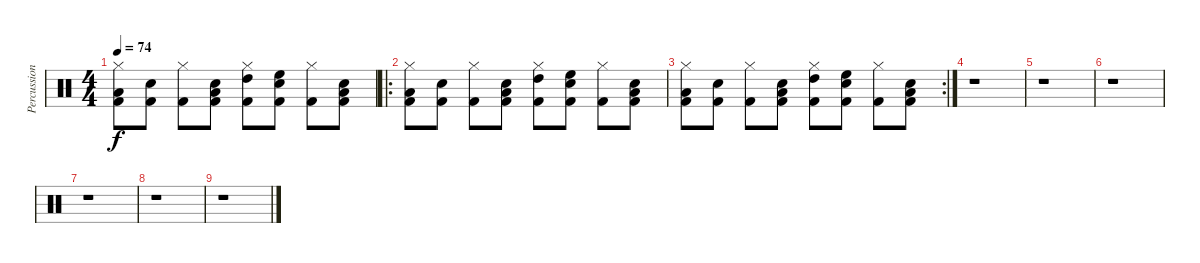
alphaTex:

\track ("Percussion" "Percussion") {instrument percussion}
\staff {score}
\articulation defaults
\ts (4 4)
\tempo 74
\clef neutral
\ks c
("Hi-Hat (closed)" "Low Tom (hit)" "Kick (hit) 2").8{dy f} ("Snare (hit) 2" "Kick (hit) 2").8 ("Hi-Hat (closed)" "Kick (hit) 2").8 ("Snare (hit) 2" "Low Tom (hit)" "Kick (hit) 2").8 ("Hi-Hat (closed)" "High Tom (hit)" "Kick (hit) 2").8 ("Snare (hit) 2" "High Floor Tom (hit)" "Kick (hit) 2").8 ("Hi-Hat (closed)" "Kick (hit) 2").8 ("Snare (hit) 2" "Low Tom (hit)" "Kick (hit) 2").8 |
\ro
("Hi-Hat (closed)" "Low Tom (hit)" "Kick (hit) 2").8 ("Snare (hit) 2" "Kick (hit) 2").8 ("Hi-Hat (closed)" "Kick (hit) 2").8 ("Snare (hit) 2" "Low Tom (hit)" "Kick (hit) 2").8 ("Hi-Hat (closed)" "High Tom (hit)" "Kick (hit) 2").8 ("Snare (hit) 2" "High Floor Tom (hit)" "Kick (hit) 2").8 ("Hi-Hat (closed)" "Kick (hit) 2").8 ("Snare (hit) 2" "Low Tom (hit)" "Kick (hit) 2").8 |
\rc 2
("Hi-Hat (closed)" "Low Tom (hit)" "Kick (hit) 2").8 ("Snare (hit) 2" "Kick (hit) 2").8 ("Hi-Hat (closed)" "Kick (hit) 2").8 ("Snare (hit) 2" "Low Tom (hit)" "Kick (hit) 2").8 ("Hi-Hat (closed)" "High Tom (hit)" "Kick (hit) 2").8 ("Snare (hit) 2" "High Floor Tom (hit)" "Kick (hit) 2").8 ("Hi-Hat (closed)" "Kick (hit) 2").8 ("Snare (hit) 2" "Low Tom (hit)" "Kick (hit) 2").8 |
r.1 |
r.1 |
r.1 |
r.1 |
r.1 |
r.1
